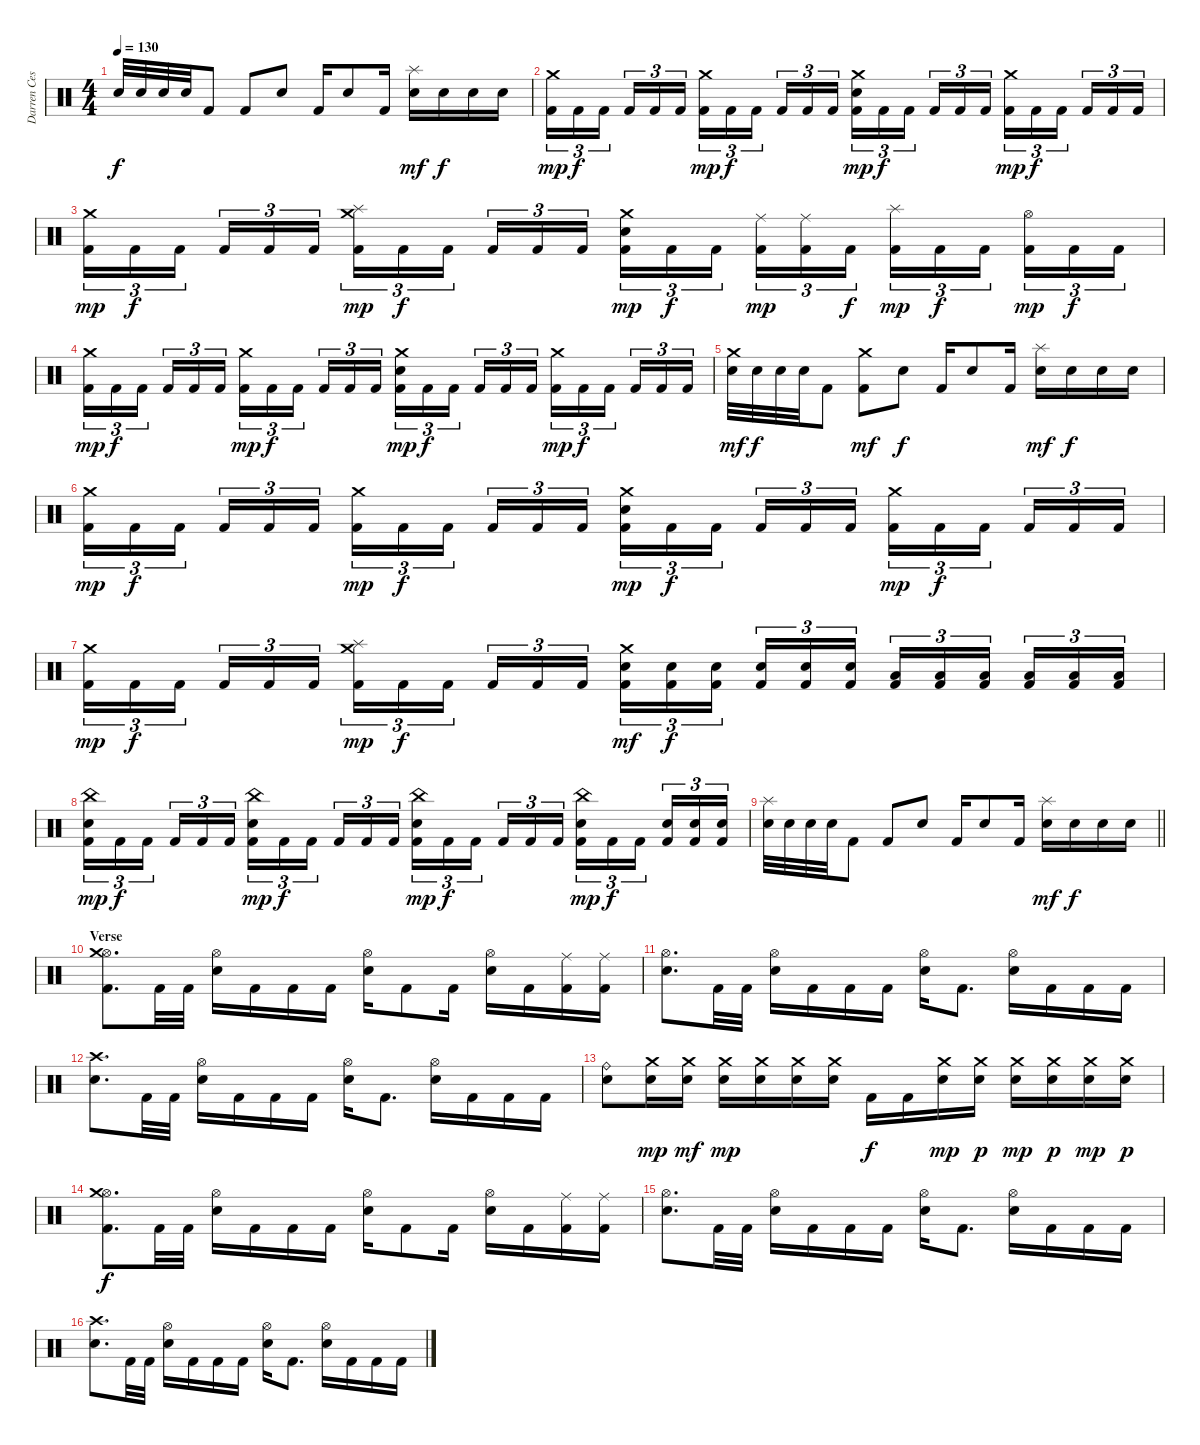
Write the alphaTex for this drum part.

\track ("Darren Cesca" "Darren Ces") {instrument percussion}
\staff {score}
\articulation defaults
\ts (4 4)
\tempo 130
\clef neutral
\ks c "Electric Snare (hit)".32{dy f} "Electric Snare (hit)".32 "Electric Snare (hit)".32 "Electric Snare (hit)".32 "Kick (hit) 2".8 "Kick (hit) 2".8 "Electric Snare (hit)".8 "Kick (hit) 2".16 "Electric Snare (hit)".8 "Kick (hit) 2".16
("Splash (hit)" "Electric Snare (hit)").16{dy mf} "Electric Snare (hit)".16{dy f} "Electric Snare (hit)".16 "Electric Snare (hit)".16 |
("Crash medium (hit)" "Kick (hit) 2").16{tu (3 2) dy mp} "Kick (hit) 2".16{tu (3 2) dy f} "Kick (hit) 2".16{tu (3 2) beam splitsecondary} "Kick (hit) 2".16{tu (3 2)} "Kick (hit) 2".16{tu (3 2)} "Kick (hit) 2".16{tu (3 2)} ("Crash medium (hit)" "Kick (hit) 2").16{tu (3 2) dy mp} "Kick (hit) 2".16{tu (3 2) dy f} "Kick (hit) 2".16{tu (3 2) beam splitsecondary} "Kick (hit) 2".16{tu (3 2)} "Kick (hit) 2".16{tu (3 2)} "Kick (hit) 2".16{tu (3 2)} ("Crash medium (hit)" "Electric Snare (hit)" "Kick (hit) 2").16{tu (3 2) dy mp} "Kick (hit) 2".16{tu (3 2) dy f} "Kick (hit) 2".16{tu (3 2) beam splitsecondary} "Kick (hit) 2".16{tu (3 2)} "Kick (hit) 2".16{tu (3 2)} "Kick (hit) 2".16{tu (3 2)} ("Crash medium (hit)" "Kick (hit) 2").16{tu (3 2) dy mp} "Kick (hit) 2".16{tu (3 2) dy f} "Kick (hit) 2".16{tu (3 2) beam splitsecondary} "Kick (hit) 2".16{tu (3 2)} "Kick (hit) 2".16{tu (3 2)} "Kick (hit) 2".16{tu (3 2)} |
("Crash medium (hit)" "Kick (hit) 2").16{tu (3 2) dy mp} "Kick (hit) 2".16{tu (3 2) dy f} "Kick (hit) 2".16{tu (3 2) beam splitsecondary} "Kick (hit) 2".16{tu (3 2)} "Kick (hit) 2".16{tu (3 2)} "Kick (hit) 2".16{tu (3 2)} ("Crash medium (hit)" "Splash (hit)" "Kick (hit) 2").16{tu (3 2) dy mp} "Kick (hit) 2".16{tu (3 2) dy f} "Kick (hit) 2".16{tu (3 2) beam splitsecondary} "Kick (hit) 2".16{tu (3 2)} "Kick (hit) 2".16{tu (3 2)} "Kick (hit) 2".16{tu (3 2)} ("Crash medium (hit)" "Electric Snare (hit)" "Kick (hit) 2").16{tu (3 2) dy mp} "Kick (hit) 2".16{tu (3 2) dy f} "Kick (hit) 2".16{tu (3 2) beam splitsecondary} ("Ride (middle)" "Kick (hit) 2").16{tu (3 2) dy mp} ("Ride (middle)" "Kick (hit) 2").16{tu (3 2)} "Kick (hit) 2".16{tu (3 2) dy f} ("Splash (hit)" "Kick (hit) 2").16{tu (3 2) dy mp} "Kick (hit) 2".16{tu (3 2) dy f} "Kick (hit) 2".16{tu (3 2) beam splitsecondary} ("Hi-Hat (open)" "Kick (hit) 2").16{tu (3 2) dy mp} "Kick (hit) 2".16{tu (3 2) dy f} "Kick (hit) 2".16{tu (3 2)} |
("Crash medium (hit)" "Kick (hit) 2").16{tu (3 2) dy mp} "Kick (hit) 2".16{tu (3 2) dy f} "Kick (hit) 2".16{tu (3 2) beam splitsecondary} "Kick (hit) 2".16{tu (3 2)} "Kick (hit) 2".16{tu (3 2)} "Kick (hit) 2".16{tu (3 2)} ("Crash medium (hit)" "Kick (hit) 2").16{tu (3 2) dy mp} "Kick (hit) 2".16{tu (3 2) dy f} "Kick (hit) 2".16{tu (3 2) beam splitsecondary} "Kick (hit) 2".16{tu (3 2)} "Kick (hit) 2".16{tu (3 2)} "Kick (hit) 2".16{tu (3 2)} ("Crash medium (hit)" "Electric Snare (hit)" "Kick (hit) 2").16{tu (3 2) dy mp} "Kick (hit) 2".16{tu (3 2) dy f} "Kick (hit) 2".16{tu (3 2) beam splitsecondary} "Kick (hit) 2".16{tu (3 2)} "Kick (hit) 2".16{tu (3 2)} "Kick (hit) 2".16{tu (3 2)} ("Crash medium (hit)" "Kick (hit) 2").16{tu (3 2) dy mp} "Kick (hit) 2".16{tu (3 2) dy f} "Kick (hit) 2".16{tu (3 2) beam splitsecondary} "Kick (hit) 2".16{tu (3 2)} "Kick (hit) 2".16{tu (3 2)} "Kick (hit) 2".16{tu (3 2)} |
("Crash medium (hit)" "Electric Snare (hit)").32{dy mf} "Electric Snare (hit)".32{dy f} "Electric Snare (hit)".32 "Electric Snare (hit)".32 "Kick (hit) 2".8 ("Crash medium (hit)" "Kick (hit) 2").8{dy mf} "Electric Snare (hit)".8{dy f} "Kick (hit) 2".16 "Electric Snare (hit)".8 "Kick (hit) 2".16 ("Splash (hit)" "Electric Snare (hit)").16{dy mf} "Electric Snare (hit)".16{dy f} "Electric Snare (hit)".16 "Electric Snare (hit)".16 |
("Crash medium (hit)" "Kick (hit) 2").16{tu (3 2) dy mp} "Kick (hit) 2".16{tu (3 2) dy f} "Kick (hit) 2".16{tu (3 2) beam splitsecondary} "Kick (hit) 2".16{tu (3 2)} "Kick (hit) 2".16{tu (3 2)} "Kick (hit) 2".16{tu (3 2)} ("Crash medium (hit)" "Kick (hit) 2").16{tu (3 2) dy mp} "Kick (hit) 2".16{tu (3 2) dy f} "Kick (hit) 2".16{tu (3 2) beam splitsecondary} "Kick (hit) 2".16{tu (3 2)} "Kick (hit) 2".16{tu (3 2)} "Kick (hit) 2".16{tu (3 2)} ("Crash medium (hit)" "Electric Snare (hit)" "Kick (hit) 2").16{tu (3 2) dy mp} "Kick (hit) 2".16{tu (3 2) dy f} "Kick (hit) 2".16{tu (3 2) beam splitsecondary} "Kick (hit) 2".16{tu (3 2)} "Kick (hit) 2".16{tu (3 2)} "Kick (hit) 2".16{tu (3 2)} ("Crash medium (hit)" "Kick (hit) 2").16{tu (3 2) dy mp} "Kick (hit) 2".16{tu (3 2) dy f} "Kick (hit) 2".16{tu (3 2) beam splitsecondary} "Kick (hit) 2".16{tu (3 2)} "Kick (hit) 2".16{tu (3 2)} "Kick (hit) 2".16{tu (3 2)} |
("Crash medium (hit)" "Kick (hit) 2").16{tu (3 2) dy mp} "Kick (hit) 2".16{tu (3 2) dy f} "Kick (hit) 2".16{tu (3 2) beam splitsecondary} "Kick (hit) 2".16{tu (3 2)} "Kick (hit) 2".16{tu (3 2)} "Kick (hit) 2".16{tu (3 2)} ("Crash medium (hit)" "Splash (hit)" "Kick (hit) 2").16{tu (3 2) dy mp} "Kick (hit) 2".16{tu (3 2) dy f} "Kick (hit) 2".16{tu (3 2) beam splitsecondary} "Kick (hit) 2".16{tu (3 2)} "Kick (hit) 2".16{tu (3 2)} "Kick (hit) 2".16{tu (3 2)} ("Crash medium (hit)" "Electric Snare (hit)" "Kick (hit) 2").16{tu (3 2) dy mf} ("Electric Snare (hit)" "Kick (hit) 2").16{tu (3 2) dy f} ("Electric Snare (hit)" "Kick (hit) 2").16{tu (3 2) beam splitsecondary} ("Electric Snare (hit)" "Kick (hit) 2").16{tu (3 2)} ("Electric Snare (hit)" "Kick (hit) 2").16{tu (3 2)} ("Electric Snare (hit)" "Kick (hit) 2").16{tu (3 2)} ("Low Tom (hit)" "Kick (hit) 2").16{tu (3 2)} ("Low Tom (hit)" "Kick (hit) 2").16{tu (3 2)} ("Low Tom (hit)" "Kick (hit) 2").16{tu (3 2) beam splitsecondary} ("Low Tom (hit)" "Kick (hit) 2").16{tu (3 2)} ("Low Tom (hit)" "Kick (hit) 2").16{tu (3 2)} ("Low Tom (hit)" "Kick (hit) 2").16{tu (3 2)} |
("China (hit)" "Electric Snare (hit)" "Kick (hit) 2").16{tu (3 2) dy mp} "Kick (hit) 2".16{tu (3 2) dy f} "Kick (hit) 2".16{tu (3 2) beam splitsecondary} "Kick (hit) 2".16{tu (3 2)} "Kick (hit) 2".16{tu (3 2)} "Kick (hit) 2".16{tu (3 2)} ("China (hit)" "Electric Snare (hit)" "Kick (hit) 2").16{tu (3 2) dy mp} "Kick (hit) 2".16{tu (3 2) dy f} "Kick (hit) 2".16{tu (3 2) beam splitsecondary} "Kick (hit) 2".16{tu (3 2)} "Kick (hit) 2".16{tu (3 2)} "Kick (hit) 2".16{tu (3 2)} ("China (hit)" "Electric Snare (hit)" "Kick (hit) 2").16{tu (3 2) dy mp} "Kick (hit) 2".16{tu (3 2) dy f} "Kick (hit) 2".16{tu (3 2) beam splitsecondary} "Kick (hit) 2".16{tu (3 2)} "Kick (hit) 2".16{tu (3 2)} "Kick (hit) 2".16{tu (3 2)} ("China (hit)" "Electric Snare (hit)" "Kick (hit) 2").16{tu (3 2) dy mp} "Kick (hit) 2".16{tu (3 2) dy f} "Kick (hit) 2".16{tu (3 2) beam splitsecondary} ("Electric Snare (hit)" "Kick (hit) 2").16{tu (3 2)} ("Electric Snare (hit)" "Kick (hit) 2").16{tu (3 2)} ("Electric Snare (hit)" "Kick (hit) 2").16{tu (3 2)} |
\barLineRight lightlight
("Splash (hit)" "Electric Snare (hit)").32 "Electric Snare (hit)".32 "Electric Snare (hit)".32 "Electric Snare (hit)".32 "Kick (hit) 2".8 "Kick (hit) 2".8 "Electric Snare (hit)".8 "Kick (hit) 2".16 "Electric Snare (hit)".8 "Kick (hit) 2".16 ("Splash (hit)" "Electric Snare (hit)").16{dy mf} "Electric Snare (hit)".16{dy f} "Electric Snare (hit)".16 "Electric Snare (hit)".16 |
\section ("" "Verse")
("Hi-Hat (open)" "Crash medium (hit)" "Kick (hit) 2").8{d} "Kick (hit) 2".32 "Kick (hit) 2".32 ("Hi-Hat (open)" "Electric Snare (hit)").16 "Kick (hit) 2".16 "Kick (hit) 2".16 "Kick (hit) 2".16 ("Hi-Hat (open)" "Electric Snare (hit)").16 "Kick (hit) 2".8 "Kick (hit) 2".16 ("Hi-Hat (open)" "Electric Snare (hit)").16 "Kick (hit) 2".16 ("Ride (middle)" "Kick (hit) 2").16 ("Ride (middle)" "Kick (hit) 2").16 |
("Hi-Hat (open)" "Electric Snare (hit)").8{d} "Kick (hit) 2".32 "Kick (hit) 2".32 ("Hi-Hat (open)" "Electric Snare (hit)").16 "Kick (hit) 2".16 "Kick (hit) 2".16 "Kick (hit) 2".16 ("Hi-Hat (open)" "Electric Snare (hit)").16 "Kick (hit) 2".8{d} ("Hi-Hat (open)" "Electric Snare (hit)").16 "Kick (hit) 2".16 "Kick (hit) 2".16 "Kick (hit) 2".16 |
("Crash high (hit)" "Electric Snare (hit)").8{d} "Kick (hit) 2".32 "Kick (hit) 2".32 ("Hi-Hat (open)" "Electric Snare (hit)").16 "Kick (hit) 2".16 "Kick (hit) 2".16 "Kick (hit) 2".16 ("Hi-Hat (open)" "Electric Snare (hit)").16 "Kick (hit) 2".8{d} ("Hi-Hat (open)" "Electric Snare (hit)").16 "Kick (hit) 2".16 "Kick (hit) 2".16 "Kick (hit) 2".16 |
("Ride (bell)" "Electric Snare (hit)").8 ("Crash medium (hit)" "Electric Snare (hit)").16{dy mp} ("Crash medium (hit)" "Electric Snare (hit)").16{dy mf} ("Crash medium (hit)" "Electric Snare (hit)").16{dy mp} ("Crash medium (hit)" "Electric Snare (hit)").16 ("Crash medium (hit)" "Electric Snare (hit)").16 ("Crash medium (hit)" "Electric Snare (hit)").16 "Kick (hit) 2".16{dy f} "Kick (hit) 2".16 ("Crash medium (hit)" "Electric Snare (hit)").16{dy mp} ("Crash medium (hit)" "Electric Snare (hit)").16{dy p} ("Crash medium (hit)" "Electric Snare (hit)").16{dy mp} ("Crash medium (hit)" "Electric Snare (hit)").16{dy p} ("Crash medium (hit)" "Electric Snare (hit)").16{dy mp} ("Crash medium (hit)" "Electric Snare (hit)").16{dy p} |
("Hi-Hat (open)" "Crash medium (hit)" "Kick (hit) 2").8{d dy f} "Kick (hit) 2".32 "Kick (hit) 2".32 ("Hi-Hat (open)" "Electric Snare (hit)").16 "Kick (hit) 2".16 "Kick (hit) 2".16 "Kick (hit) 2".16 ("Hi-Hat (open)" "Electric Snare (hit)").16 "Kick (hit) 2".8 "Kick (hit) 2".16 ("Hi-Hat (open)" "Electric Snare (hit)").16 "Kick (hit) 2".16 ("Ride (middle)" "Kick (hit) 2").16 ("Ride (middle)" "Kick (hit) 2").16 |
("Hi-Hat (open)" "Electric Snare (hit)").8{d} "Kick (hit) 2".32 "Kick (hit) 2".32 ("Hi-Hat (open)" "Electric Snare (hit)").16 "Kick (hit) 2".16 "Kick (hit) 2".16 "Kick (hit) 2".16 ("Hi-Hat (open)" "Electric Snare (hit)").16 "Kick (hit) 2".8{d} ("Hi-Hat (open)" "Electric Snare (hit)").16 "Kick (hit) 2".16 "Kick (hit) 2".16 "Kick (hit) 2".16 |
("Crash high (hit)" "Electric Snare (hit)").8{d} "Kick (hit) 2".32 "Kick (hit) 2".32 ("Hi-Hat (open)" "Electric Snare (hit)").16 "Kick (hit) 2".16 "Kick (hit) 2".16 "Kick (hit) 2".16 ("Hi-Hat (open)" "Electric Snare (hit)").16 "Kick (hit) 2".8{d} ("Hi-Hat (open)" "Electric Snare (hit)").16 "Kick (hit) 2".16 "Kick (hit) 2".16 "Kick (hit) 2".16
